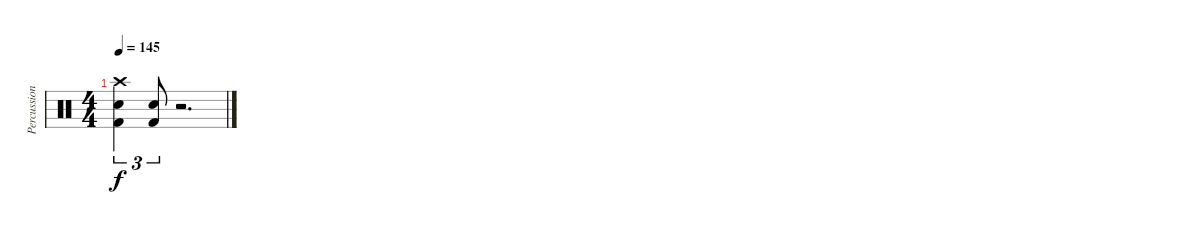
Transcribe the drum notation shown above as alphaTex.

\track ("Percussion" "Percussion") {instrument percussion}
\staff {score}
\articulation defaults
\ts (4 4)
\tempo 145
\clef neutral
\ks c
("Crash high (hit)" "Electric Snare (hit)" "Kick (hit) 2").4{tu (3 2) dy f} ("Electric Snare (hit)" "Kick (hit) 2").8{tu (3 2)} r.2{d}
